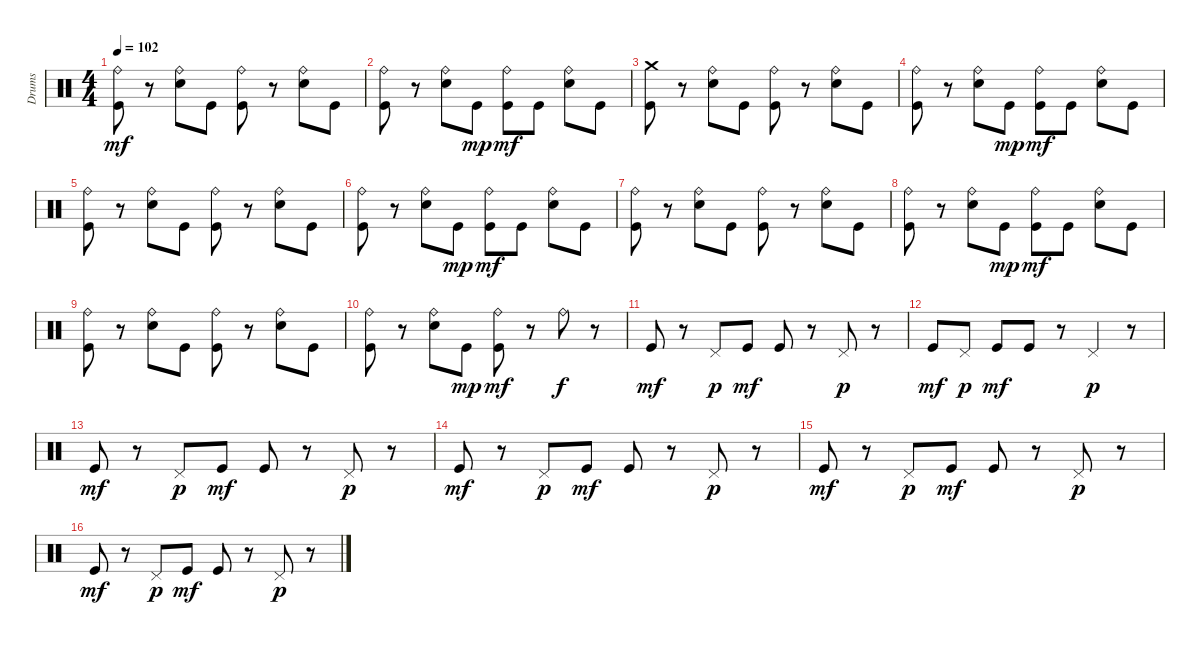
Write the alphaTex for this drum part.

\track ("Drums" "Drums") {instrument percussion}
\staff {score}
\articulation defaults
\ts (4 4)
\tempo 102
\clef neutral
\ks c
("Ride (bell)" "Kick (hit)").8{dy mf} r.8 ("Ride (bell)" "Snare (hit) 2").8 "Kick (hit)".8 ("Ride (bell)" "Kick (hit)").8 r.8 ("Ride (bell)" "Snare (hit) 2").8 "Kick (hit)".8 |
("Ride (bell)" "Kick (hit)").8 r.8 ("Ride (bell)" "Snare (hit) 2").8 "Kick (hit)".8{dy mp} ("Ride (bell)" "Kick (hit)").8{dy mf} "Kick (hit)".8 ("Ride (bell)" "Snare (hit) 2").8 "Kick (hit)".8 |
("Crash medium (hit)" "Kick (hit)").8 r.8 ("Ride (bell)" "Snare (hit) 2").8 "Kick (hit)".8 ("Ride (bell)" "Kick (hit)").8 r.8 ("Ride (bell)" "Snare (hit) 2").8 "Kick (hit)".8 |
("Ride (bell)" "Kick (hit)").8 r.8 ("Ride (bell)" "Snare (hit) 2").8 "Kick (hit)".8{dy mp} ("Ride (bell)" "Kick (hit)").8{dy mf} "Kick (hit)".8 ("Ride (bell)" "Snare (hit) 2").8 "Kick (hit)".8 |
("Ride (bell)" "Kick (hit)").8 r.8 ("Ride (bell)" "Snare (hit) 2").8 "Kick (hit)".8 ("Ride (bell)" "Kick (hit)").8 r.8 ("Ride (bell)" "Snare (hit) 2").8 "Kick (hit)".8 |
("Ride (bell)" "Kick (hit)").8 r.8 ("Ride (bell)" "Snare (hit) 2").8 "Kick (hit)".8{dy mp} ("Ride (bell)" "Kick (hit)").8{dy mf} "Kick (hit)".8 ("Ride (bell)" "Snare (hit) 2").8 "Kick (hit)".8 |
("Ride (bell)" "Kick (hit)").8 r.8 ("Ride (bell)" "Snare (hit) 2").8 "Kick (hit)".8 ("Ride (bell)" "Kick (hit)").8 r.8 ("Ride (bell)" "Snare (hit) 2").8 "Kick (hit)".8 |
("Ride (bell)" "Kick (hit)").8 r.8 ("Ride (bell)" "Snare (hit) 2").8 "Kick (hit)".8{dy mp} ("Ride (bell)" "Kick (hit)").8{dy mf} "Kick (hit)".8 ("Ride (bell)" "Snare (hit) 2").8 "Kick (hit)".8 |
("Ride (bell)" "Kick (hit)").8 r.8 ("Ride (bell)" "Snare (hit) 2").8 "Kick (hit)".8 ("Ride (bell)" "Kick (hit)").8 r.8 ("Ride (bell)" "Snare (hit) 2").8 "Kick (hit)".8 |
("Ride (bell)" "Kick (hit)").8 r.8 ("Ride (bell)" "Snare (hit) 2").8 "Kick (hit)".8{dy mp} ("Ride (bell)" "Kick (hit)").8{dy mf} r.8 "Ride (bell)".8{dy f} r.8 |
"Kick (hit)".8{dy mf} r.8 "Pedal Hi-Hat (hit)".8{dy p} "Kick (hit)".8{dy mf} "Kick (hit)".8 r.8 "Pedal Hi-Hat (hit)".8{dy p} r.8 |
"Kick (hit)".8{dy mf} "Pedal Hi-Hat (hit)".8{dy p} "Kick (hit)".8{dy mf} "Kick (hit)".8 r.8 "Pedal Hi-Hat (hit)".4{dy p} r.8 |
"Kick (hit)".8{dy mf} r.8 "Pedal Hi-Hat (hit)".8{dy p} "Kick (hit)".8{dy mf} "Kick (hit)".8 r.8 "Pedal Hi-Hat (hit)".8{dy p} r.8 |
"Kick (hit)".8{dy mf} r.8 "Pedal Hi-Hat (hit)".8{dy p} "Kick (hit)".8{dy mf} "Kick (hit)".8 r.8 "Pedal Hi-Hat (hit)".8{dy p} r.8 |
"Kick (hit)".8{dy mf} r.8 "Pedal Hi-Hat (hit)".8{dy p} "Kick (hit)".8{dy mf} "Kick (hit)".8 r.8 "Pedal Hi-Hat (hit)".8{dy p} r.8 |
"Kick (hit)".8{dy mf} r.8 "Pedal Hi-Hat (hit)".8{dy p} "Kick (hit)".8{dy mf} "Kick (hit)".8 r.8 "Pedal Hi-Hat (hit)".8{dy p} r.8
